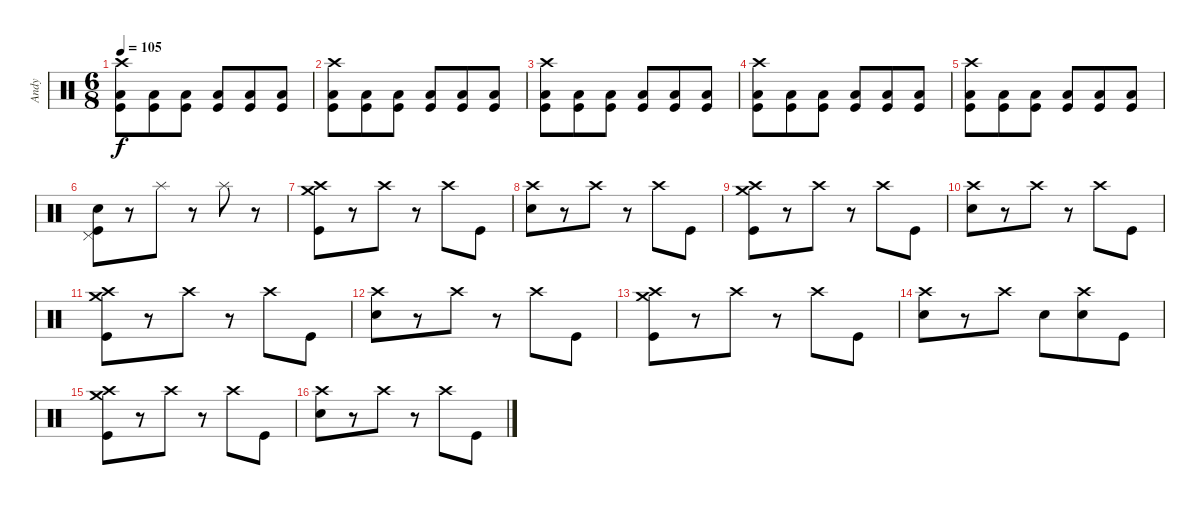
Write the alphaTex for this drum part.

\track ("Andy" "Andy") {instrument percussion}
\staff {score}
\articulation defaults
\ts (6 8)
\tempo 105
\clef neutral
\ks c
("Crash high (hit)" "Kick (hit)" "Low Floor Tom (hit)").8{dy f} ("Low Floor Tom (hit)" "Kick (hit)").8 ("Kick (hit)" "Low Floor Tom (hit)").8 ("Kick (hit)" "Low Floor Tom (hit)").8 ("Kick (hit)" "Low Floor Tom (hit)").8 ("Kick (hit)" "Low Floor Tom (hit)").8 |
("Crash high (hit)" "Kick (hit)" "Low Floor Tom (hit)").8 ("Low Floor Tom (hit)" "Kick (hit)").8 ("Kick (hit)" "Low Floor Tom (hit)").8 ("Kick (hit)" "Low Floor Tom (hit)").8 ("Kick (hit)" "Low Floor Tom (hit)").8 ("Kick (hit)" "Low Floor Tom (hit)").8 |
("Crash high (hit)" "Kick (hit)" "Low Floor Tom (hit)").8 ("Low Floor Tom (hit)" "Kick (hit)").8 ("Kick (hit)" "Low Floor Tom (hit)").8 ("Kick (hit)" "Low Floor Tom (hit)").8 ("Kick (hit)" "Low Floor Tom (hit)").8 ("Kick (hit)" "Low Floor Tom (hit)").8 |
("Crash high (hit)" "Kick (hit)" "Low Floor Tom (hit)").8 ("Low Floor Tom (hit)" "Kick (hit)").8 ("Kick (hit)" "Low Floor Tom (hit)").8 ("Kick (hit)" "Low Floor Tom (hit)").8 ("Kick (hit)" "Low Floor Tom (hit)").8 ("Kick (hit)" "Low Floor Tom (hit)").8 |
("Crash high (hit)" "Kick (hit)" "Low Floor Tom (hit)").8 ("Low Floor Tom (hit)" "Kick (hit)").8 ("Kick (hit)" "Low Floor Tom (hit)").8 ("Kick (hit)" "Low Floor Tom (hit)").8 ("Kick (hit)" "Low Floor Tom (hit)").8 ("Kick (hit)" "Low Floor Tom (hit)").8 |
("Pedal Hi-Hat (hit)" "Kick (hit)" "Electric Snare (hit)").8 r.8 "Splash (hit)".8 r.8 "Splash (hit)".8 r.8 |
("Kick (hit)" "Crash high (hit)" "Crash medium (hit)").8 r.8 "Crash high (hit)".8 r.8 "Crash high (hit)".8 "Kick (hit)".8 |
("Snare (hit) 2" "Crash high (hit)").8 r.8 "Crash high (hit)".8 r.8 "Crash high (hit)".8 "Kick (hit)".8 |
("Kick (hit)" "Crash high (hit)" "Crash medium (hit)").8 r.8 "Crash high (hit)".8 r.8 "Crash high (hit)".8 "Kick (hit)".8 |
("Snare (hit) 2" "Crash high (hit)").8 r.8 "Crash high (hit)".8 r.8 "Crash high (hit)".8 "Kick (hit)".8 |
("Kick (hit)" "Crash high (hit)" "Crash medium (hit)").8 r.8 "Crash high (hit)".8 r.8 "Crash high (hit)".8 "Kick (hit)".8 |
("Snare (hit) 2" "Crash high (hit)").8 r.8 "Crash high (hit)".8 r.8 "Crash high (hit)".8 "Kick (hit)".8 |
("Kick (hit)" "Crash high (hit)" "Crash medium (hit)").8 r.8 "Crash high (hit)".8 r.8 "Crash high (hit)".8 "Kick (hit)".8 |
("Snare (hit) 2" "Crash high (hit)").8 r.8 "Crash high (hit)".8 "Snare (hit) 2".8 ("Crash high (hit)" "Snare (hit) 2").8 "Kick (hit)".8 |
("Kick (hit)" "Crash high (hit)" "Crash medium (hit)").8 r.8 "Crash high (hit)".8 r.8 "Crash high (hit)".8 "Kick (hit)".8 |
("Snare (hit) 2" "Crash high (hit)").8 r.8 "Crash high (hit)".8 r.8 "Crash high (hit)".8 "Kick (hit)".8
